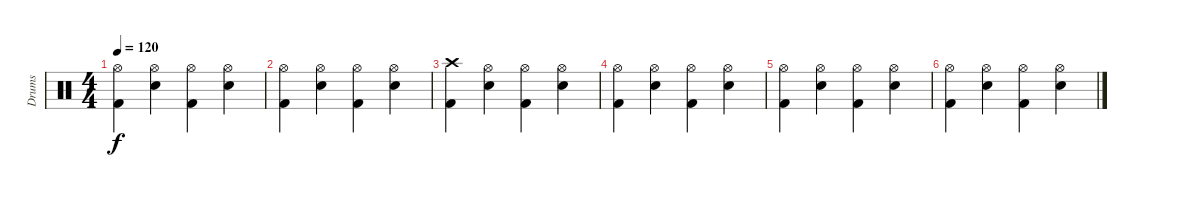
\track ("Drums" "Drums") {instrument percussion}
\staff {score}
\articulation defaults
\ts (4 4)
\tempo 120
\clef neutral
\ks c
("Hi-Hat (open)" "Kick (hit) 2").4{dy f} ("Hi-Hat (open)" "Electric Snare (hit)").4 ("Hi-Hat (open)" "Kick (hit) 2").4 ("Hi-Hat (open)" "Electric Snare (hit)").4 |
("Hi-Hat (open)" "Kick (hit) 2").4 ("Hi-Hat (open)" "Electric Snare (hit)").4 ("Hi-Hat (open)" "Kick (hit) 2").4 ("Hi-Hat (open)" "Electric Snare (hit)").4 |
("Crash high (hit)" "Kick (hit) 2").4 ("Hi-Hat (open)" "Electric Snare (hit)").4 ("Hi-Hat (open)" "Kick (hit) 2").4 ("Hi-Hat (open)" "Electric Snare (hit)").4 |
("Hi-Hat (open)" "Kick (hit) 2").4 ("Hi-Hat (open)" "Electric Snare (hit)").4 ("Hi-Hat (open)" "Kick (hit) 2").4 ("Hi-Hat (open)" "Electric Snare (hit)").4 |
("Hi-Hat (open)" "Kick (hit) 2").4 ("Hi-Hat (open)" "Electric Snare (hit)").4 ("Hi-Hat (open)" "Kick (hit) 2").4 ("Hi-Hat (open)" "Electric Snare (hit)").4 |
("Hi-Hat (open)" "Kick (hit) 2").4 ("Hi-Hat (open)" "Electric Snare (hit)").4 ("Hi-Hat (open)" "Kick (hit) 2").4 ("Hi-Hat (open)" "Electric Snare (hit)").4
